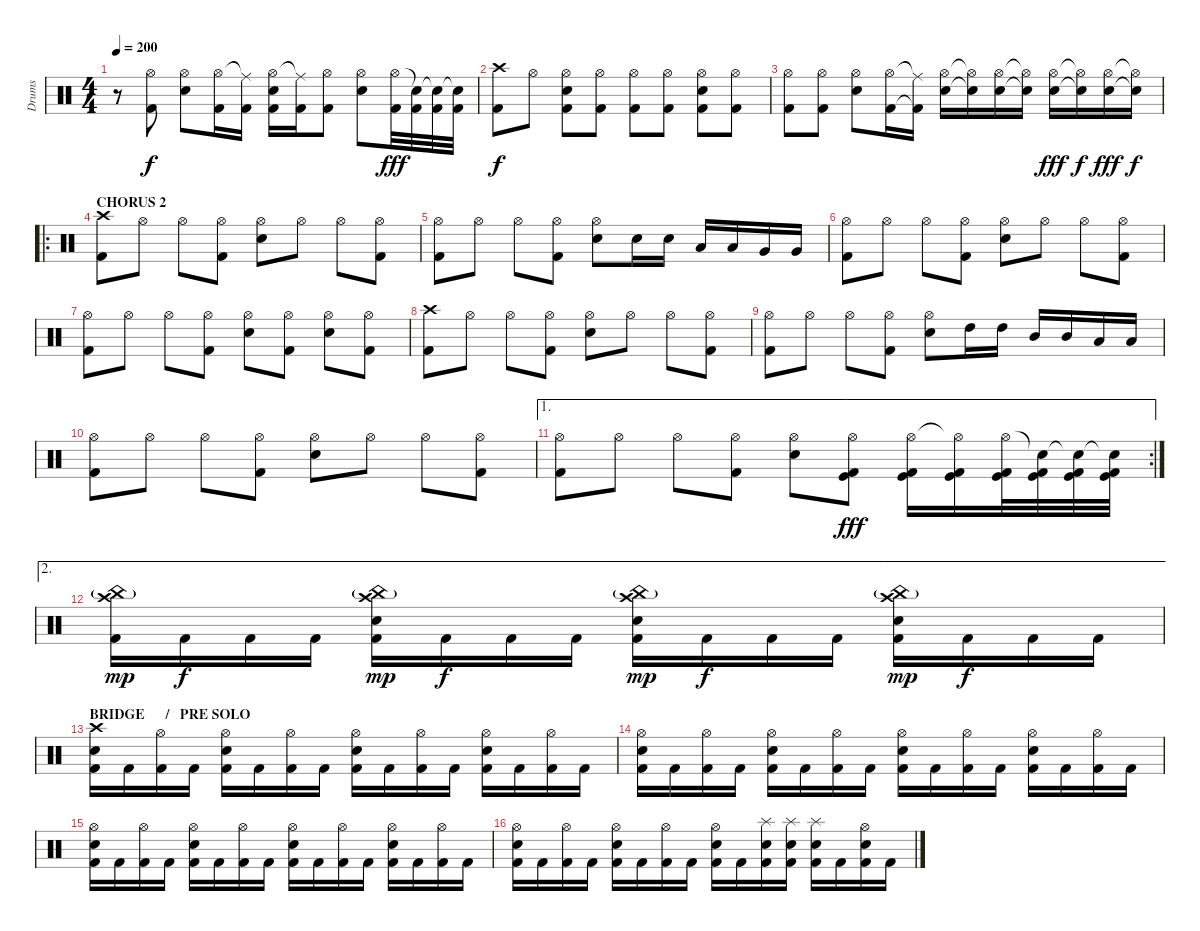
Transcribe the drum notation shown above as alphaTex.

\track ("Drums" "Drums") {instrument percussion}
\staff {score}
\articulation defaults
\ts (4 4)
\tempo 200
\clef neutral
\ks c
r.8{dy f} ("Hi-Hat (open)" "Kick (hit) 2").8 ("Hi-Hat (open)" "Electric Snare (hit)").8 ("Hi-Hat (open)" "Kick (hit) 2").16 ("Ride (middle)"{t} "Kick (hit) 2").16 ("Hi-Hat (open)" "Electric Snare (hit)" "Kick (hit) 2").16 ("Ride (middle)"{t} "Kick (hit) 2").16 ("Hi-Hat (open)" "Kick (hit) 2").8 ("Hi-Hat (open)" "Electric Snare (hit)").8 ("Hi-Hat (open)" "Kick (hit) 2").32{dy fff} ("Snare (hit)"{t} "Kick (hit) 2").32 ("Snare (hit)"{t} "Kick (hit) 2").32 ("Snare (hit)"{t} "Kick (hit) 2").32 |
("Crash high (hit)" "Kick (hit) 2").8{dy f} "Hi-Hat (open)".8 ("Hi-Hat (open)" "Electric Snare (hit)" "Kick (hit) 2").8 ("Hi-Hat (open)" "Kick (hit) 2").8 ("Hi-Hat (open)" "Kick (hit) 2").8 ("Hi-Hat (open)" "Kick (hit) 2").8 ("Hi-Hat (open)" "Electric Snare (hit)" "Kick (hit) 2").8 ("Hi-Hat (open)" "Kick (hit) 2").8 |
("Hi-Hat (open)" "Kick (hit) 2").8 ("Hi-Hat (open)" "Kick (hit) 2").8 ("Hi-Hat (open)" "Electric Snare (hit)").8 ("Hi-Hat (open)" "Kick (hit) 2").16 ("Ride (middle)"{t} "Kick (hit) 2"{t}).16 ("Hi-Hat (open)" "Electric Snare (hit)").16 ("Hi-Hat (open)"{t} "Electric Snare (hit)"{t}).16 ("Hi-Hat (open)" "Electric Snare (hit)").16 ("Hi-Hat (open)"{t} "Electric Snare (hit)"{t}).16 ("Hi-Hat (open)" "Electric Snare (hit)").16{dy fff} ("Hi-Hat (open)"{t} "Electric Snare (hit)"{t}).16{dy f} ("Hi-Hat (open)" "Electric Snare (hit)").16{dy fff} ("Hi-Hat (open)"{t} "Electric Snare (hit)"{t}).16{dy f} |
\ro
\section ("" "CHORUS 2")
("Crash high (hit)" "Kick (hit) 2").8 "Hi-Hat (open)".8 "Hi-Hat (open)".8 ("Hi-Hat (open)" "Kick (hit) 2").8 ("Hi-Hat (open)" "Electric Snare (hit)").8 "Hi-Hat (open)".8 "Hi-Hat (open)".8 ("Hi-Hat (open)" "Kick (hit) 2").8 |
("Hi-Hat (open)" "Kick (hit) 2").8 "Hi-Hat (open)".8 "Hi-Hat (open)".8 ("Hi-Hat (open)" "Kick (hit) 2").8 ("Hi-Hat (open)" "Electric Snare (hit)").8 "Electric Snare (hit)".16 "Electric Snare (hit)".16 "Low Tom (hit)".16 "Low Tom (hit)".16 "Very Low Tom (hit)".16 "Very Low Tom (hit)".16 |
("Hi-Hat (open)" "Kick (hit) 2").8 "Hi-Hat (open)".8 "Hi-Hat (open)".8 ("Hi-Hat (open)" "Kick (hit) 2").8 ("Hi-Hat (open)" "Electric Snare (hit)").8 "Hi-Hat (open)".8 "Hi-Hat (open)".8 ("Hi-Hat (open)" "Kick (hit) 2").8 |
("Hi-Hat (open)" "Kick (hit) 2").8 "Hi-Hat (open)".8 "Hi-Hat (open)".8 ("Hi-Hat (open)" "Kick (hit) 2").8 ("Hi-Hat (open)" "Electric Snare (hit)").8 ("Hi-Hat (open)" "Kick (hit) 2").8 ("Hi-Hat (open)" "Electric Snare (hit)").8 ("Hi-Hat (open)" "Kick (hit) 2").8 |
("Crash high (hit)" "Kick (hit) 2").8 "Hi-Hat (open)".8 "Hi-Hat (open)".8 ("Hi-Hat (open)" "Kick (hit) 2").8 ("Hi-Hat (open)" "Electric Snare (hit)").8 "Hi-Hat (open)".8 "Hi-Hat (open)".8 ("Hi-Hat (open)" "Kick (hit) 2").8 |
("Hi-Hat (open)" "Kick (hit) 2").8 "Hi-Hat (open)".8 "Hi-Hat (open)".8 ("Hi-Hat (open)" "Kick (hit) 2").8 ("Hi-Hat (open)" "Electric Snare (hit)").8 "High Tom (hit)".16 "High Tom (hit)".16 "Mid Tom (hit)".16 "Mid Tom (hit)".16 "Low Tom (hit)".16 "Low Tom (hit)".16 |
("Hi-Hat (open)" "Kick (hit) 2").8 "Hi-Hat (open)".8 "Hi-Hat (open)".8 ("Hi-Hat (open)" "Kick (hit) 2").8 ("Hi-Hat (open)" "Electric Snare (hit)").8 "Hi-Hat (open)".8 "Hi-Hat (open)".8 ("Hi-Hat (open)" "Kick (hit) 2").8 |
\ae 1
\rc 2
("Hi-Hat (open)" "Kick (hit) 2").8 "Hi-Hat (open)".8 "Hi-Hat (open)".8 ("Hi-Hat (open)" "Kick (hit) 2").8 ("Hi-Hat (open)" "Electric Snare (hit)").8 ("Hi-Hat (open)" "Kick (hit)" "Kick (hit) 2").8{dy fff} ("Hi-Hat (open)" "Kick (hit)" "Kick (hit) 2").16 ("Hi-Hat (open)"{t} "Kick (hit)" "Kick (hit) 2").16 ("Hi-Hat (open)" "Kick (hit)" "Kick (hit) 2").32 ("Snare (hit)"{t} "Kick (hit)" "Kick (hit) 2").32 ("Snare (hit)"{t} "Kick (hit)" "Kick (hit) 2").32 ("Snare (hit)"{t} "Kick (hit)" "Kick (hit) 2").32 |
\ae 2
("China (hit)"{g} "Crash high (hit)" "Kick (hit) 2").16{dy mp} "Kick (hit) 2".16{dy f} "Kick (hit) 2".16 "Kick (hit) 2".16 ("China (hit)"{g} "Crash high (hit)" "Electric Snare (hit)" "Kick (hit) 2").16{dy mp} "Kick (hit) 2".16{dy f} "Kick (hit) 2".16 "Kick (hit) 2".16 ("China (hit)"{g} "Crash high (hit)" "Electric Snare (hit)" "Kick (hit) 2").16{dy mp} "Kick (hit) 2".16{dy f} "Kick (hit) 2".16 "Kick (hit) 2".16 ("China (hit)"{g} "Crash high (hit)" "Electric Snare (hit)" "Kick (hit) 2").16{dy mp} "Kick (hit) 2".16{dy f} "Kick (hit) 2".16 "Kick (hit) 2".16 |
\section ("" "BRIDGE      /   PRE SOLO")
("Crash high (hit)" "Electric Snare (hit)" "Kick (hit) 2").16 "Kick (hit) 2".16 ("Hi-Hat (open)" "Kick (hit) 2").16 "Kick (hit) 2".16 ("Hi-Hat (open)" "Electric Snare (hit)" "Kick (hit) 2").16 "Kick (hit) 2".16 ("Hi-Hat (open)" "Kick (hit) 2").16 "Kick (hit) 2".16 ("Hi-Hat (open)" "Electric Snare (hit)" "Kick (hit) 2").16 "Kick (hit) 2".16 ("Hi-Hat (open)" "Kick (hit) 2").16 "Kick (hit) 2".16 ("Hi-Hat (open)" "Electric Snare (hit)" "Kick (hit) 2").16 "Kick (hit) 2".16 ("Hi-Hat (open)" "Kick (hit) 2").16 "Kick (hit) 2".16 |
("Hi-Hat (open)" "Electric Snare (hit)" "Kick (hit) 2").16 "Kick (hit) 2".16 ("Hi-Hat (open)" "Kick (hit) 2").16 "Kick (hit) 2".16 ("Hi-Hat (open)" "Electric Snare (hit)" "Kick (hit) 2").16 "Kick (hit) 2".16 ("Hi-Hat (open)" "Kick (hit) 2").16 "Kick (hit) 2".16 ("Hi-Hat (open)" "Electric Snare (hit)" "Kick (hit) 2").16 "Kick (hit) 2".16 ("Hi-Hat (open)" "Kick (hit) 2").16 "Kick (hit) 2".16 ("Hi-Hat (open)" "Electric Snare (hit)" "Kick (hit) 2").16 "Kick (hit) 2".16 ("Hi-Hat (open)" "Kick (hit) 2").16 "Kick (hit) 2".16 |
("Hi-Hat (open)" "Electric Snare (hit)" "Kick (hit) 2").16 "Kick (hit) 2".16 ("Hi-Hat (open)" "Kick (hit) 2").16 "Kick (hit) 2".16 ("Hi-Hat (open)" "Electric Snare (hit)" "Kick (hit) 2").16 "Kick (hit) 2".16 ("Hi-Hat (open)" "Kick (hit) 2").16 "Kick (hit) 2".16 ("Hi-Hat (open)" "Electric Snare (hit)" "Kick (hit) 2").16 "Kick (hit) 2".16 ("Hi-Hat (open)" "Kick (hit) 2").16 "Kick (hit) 2".16 ("Hi-Hat (open)" "Electric Snare (hit)" "Kick (hit) 2").16 "Kick (hit) 2".16 ("Hi-Hat (open)" "Kick (hit) 2").16 "Kick (hit) 2".16 |
("Hi-Hat (open)" "Electric Snare (hit)" "Kick (hit) 2").16 "Kick (hit) 2".16 ("Hi-Hat (open)" "Kick (hit) 2").16 "Kick (hit) 2".16 ("Hi-Hat (open)" "Electric Snare (hit)" "Kick (hit) 2").16 "Kick (hit) 2".16 ("Hi-Hat (open)" "Kick (hit) 2").16 "Kick (hit) 2".16 ("Hi-Hat (open)" "Electric Snare (hit)" "Kick (hit) 2").16 "Kick (hit) 2".16 ("Splash (hit)" "Electric Snare (hit)" "Kick (hit) 2").16 ("Splash (hit)" "Electric Snare (hit)" "Kick (hit) 2").16 ("Splash (hit)" "Electric Snare (hit)" "Kick (hit) 2").16 "Kick (hit) 2".16 ("Hi-Hat (open)" "Electric Snare (hit)" "Kick (hit) 2").16 "Kick (hit) 2".16
